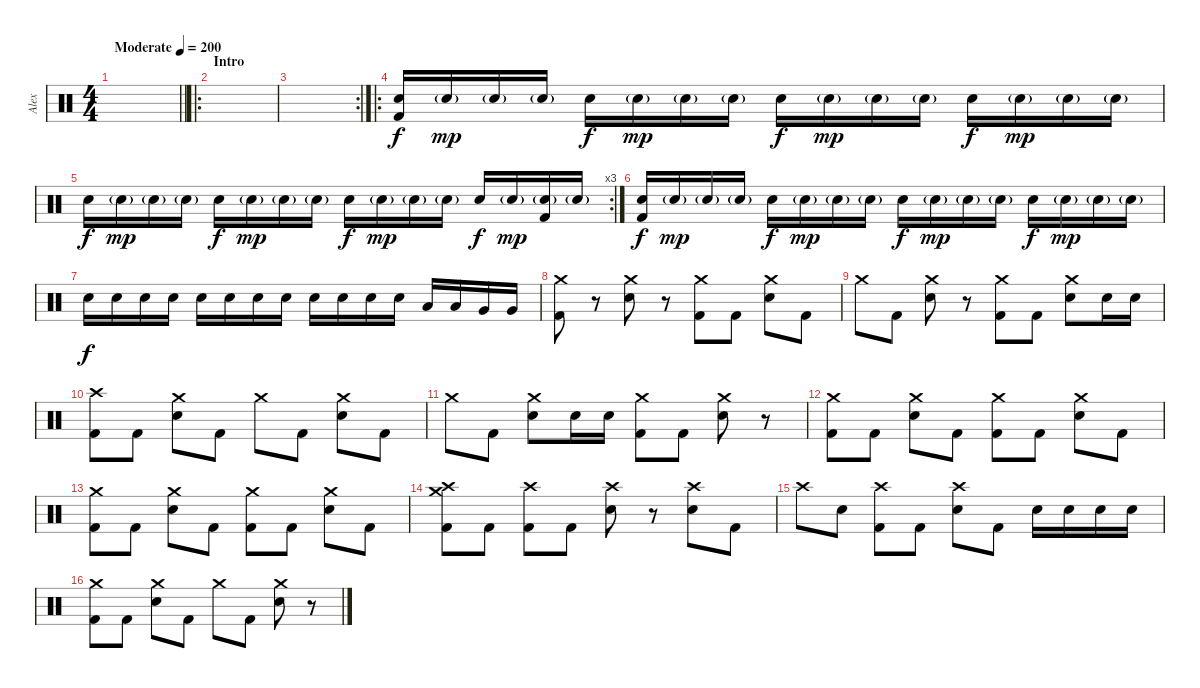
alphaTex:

\track ("Alex" "Alex") {instrument percussion}
\staff {score}
\articulation defaults
\ts (4 4)
\tempo (200 "Moderate")
\clef neutral
\barLineRight lightlight
\ks c
|
\ro
\section ("" "Intro")
|
\rc 2
|
\ro
("Electric Snare (hit)" "Kick (hit) 2").16 "Electric Snare (hit)"{g}.16{dy mp} "Electric Snare (hit)"{g}.16 "Electric Snare (hit)"{g}.16 "Electric Snare (hit)".16{dy f} "Electric Snare (hit)"{g}.16{dy mp} "Electric Snare (hit)"{g}.16 "Electric Snare (hit)"{g}.16 "Electric Snare (hit)".16{dy f} "Electric Snare (hit)"{g}.16{dy mp} "Electric Snare (hit)"{g}.16 "Electric Snare (hit)"{g}.16 "Electric Snare (hit)".16{dy f} "Electric Snare (hit)"{g}.16{dy mp} "Electric Snare (hit)"{g}.16 "Electric Snare (hit)"{g}.16 |
\rc 3 "Electric Snare (hit)".16{dy f} "Electric Snare (hit)"{g}.16{dy mp} "Electric Snare (hit)"{g}.16 "Electric Snare (hit)"{g}.16 "Electric Snare (hit)".16{dy f} "Electric Snare (hit)"{g}.16{dy mp} "Electric Snare (hit)"{g}.16 "Electric Snare (hit)"{g}.16 "Electric Snare (hit)".16{dy f} "Electric Snare (hit)"{g}.16{dy mp} "Electric Snare (hit)"{g}.16 "Electric Snare (hit)"{g}.16 "Electric Snare (hit)".16{dy f} "Electric Snare (hit)"{g}.16{dy mp}
("Electric Snare (hit)"{g} "Kick (hit) 2").16 "Electric Snare (hit)"{g}.16 |
("Electric Snare (hit)" "Kick (hit) 2").16{dy f} "Electric Snare (hit)"{g}.16{dy mp} "Electric Snare (hit)"{g}.16 "Electric Snare (hit)"{g}.16 "Electric Snare (hit)".16{dy f} "Electric Snare (hit)"{g}.16{dy mp} "Electric Snare (hit)"{g}.16 "Electric Snare (hit)"{g}.16 "Electric Snare (hit)".16{dy f} "Electric Snare (hit)"{g}.16{dy mp} "Electric Snare (hit)"{g}.16 "Electric Snare (hit)"{g}.16 "Electric Snare (hit)".16{dy f} "Electric Snare (hit)"{g}.16{dy mp} "Electric Snare (hit)"{g}.16 "Electric Snare (hit)"{g}.16 |
"Electric Snare (hit)".16{dy f volume 13} "Electric Snare (hit)".16 "Electric Snare (hit)".16 "Electric Snare (hit)".16 "Electric Snare (hit)".16 "Electric Snare (hit)".16 "Electric Snare (hit)".16 "Electric Snare (hit)".16 "Electric Snare (hit)".16 "Electric Snare (hit)".16 "Electric Snare (hit)".16 "Electric Snare (hit)".16 "Low Tom (hit)".16 "Low Tom (hit)".16 "Very Low Tom (hit)".16 "Very Low Tom (hit)".16 |
("Crash medium (hit)" "Kick (hit) 2").8 r.8 ("Crash medium (hit)" "Electric Snare (hit)").8 r.8 ("Crash medium (hit)" "Kick (hit) 2").8 "Kick (hit) 2".8 ("Crash medium (hit)" "Electric Snare (hit)").8 "Kick (hit) 2".8 |
"Crash medium (hit)".8 "Kick (hit) 2".8 ("Crash medium (hit)" "Electric Snare (hit)").8 r.8 ("Crash medium (hit)" "Kick (hit) 2").8 "Kick (hit) 2".8 ("Crash medium (hit)" "Electric Snare (hit)").8 "Electric Snare (hit)".16 "Electric Snare (hit)".16 |
("Crash high (hit)" "Kick (hit) 2").8 "Kick (hit) 2".8 ("Crash medium (hit)" "Electric Snare (hit)").8 "Kick (hit) 2".8 "Crash medium (hit)".8 "Kick (hit) 2".8 ("Crash medium (hit)" "Electric Snare (hit)").8 "Kick (hit) 2".8 |
"Crash medium (hit)".8 "Kick (hit) 2".8 ("Crash medium (hit)" "Electric Snare (hit)").8 "Electric Snare (hit)".16 "Electric Snare (hit)".16 ("Crash medium (hit)" "Kick (hit) 2").8 "Kick (hit) 2".8 ("Crash medium (hit)" "Electric Snare (hit)").8 r.8 |
("Crash medium (hit)" "Kick (hit) 2").8 "Kick (hit) 2".8 ("Crash medium (hit)" "Electric Snare (hit)").8 "Kick (hit) 2".8 ("Crash medium (hit)" "Kick (hit) 2").8 "Kick (hit) 2".8 ("Crash medium (hit)" "Electric Snare (hit)").8 "Kick (hit) 2".8 |
("Crash medium (hit)" "Kick (hit) 2").8 "Kick (hit) 2".8 ("Crash medium (hit)" "Electric Snare (hit)").8 "Kick (hit) 2".8 ("Crash medium (hit)" "Kick (hit) 2").8 "Kick (hit) 2".8 ("Crash medium (hit)" "Electric Snare (hit)").8 "Kick (hit) 2".8 |
("Crash medium (hit)" "Crash high (hit)" "Kick (hit) 2").8 "Kick (hit) 2".8 ("Crash high (hit)" "Kick (hit) 2").8 "Kick (hit) 2".8 ("Crash high (hit)" "Electric Snare (hit)").8 r.8 ("Crash high (hit)" "Electric Snare (hit)").8 "Kick (hit) 2".8 |
"Crash high (hit)".8 "Electric Snare (hit)".8 ("Crash high (hit)" "Kick (hit) 2").8 "Kick (hit) 2".8 ("Crash high (hit)" "Electric Snare (hit)").8 "Kick (hit) 2".8 "Electric Snare (hit)".16 "Electric Snare (hit)".16 "Electric Snare (hit)".16 "Electric Snare (hit)".16 |
("Crash medium (hit)" "Kick (hit) 2").8 "Kick (hit) 2".8 ("Crash medium (hit)" "Electric Snare (hit)").8 "Kick (hit) 2".8 "Crash medium (hit)".8 "Kick (hit) 2".8 ("Crash medium (hit)" "Electric Snare (hit)").8 r.8
